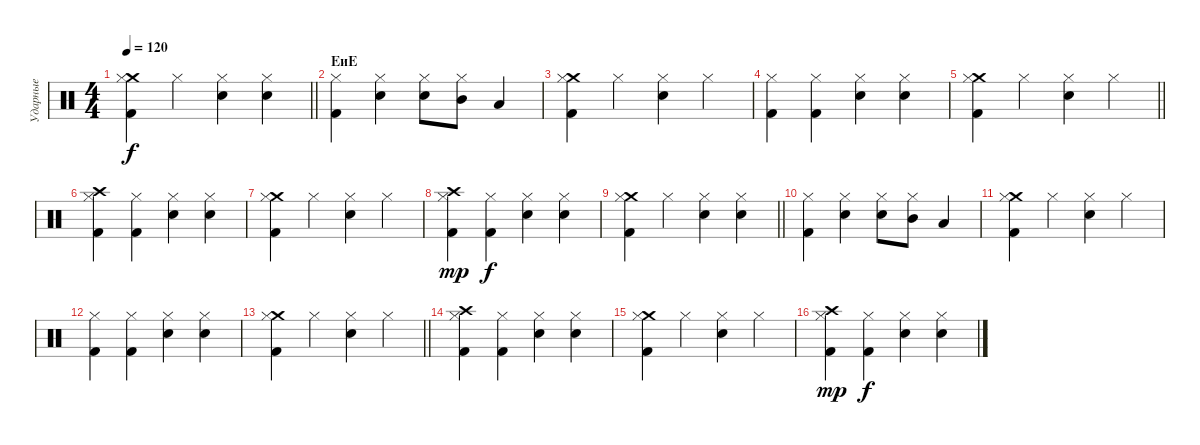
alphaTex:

\track ("Ударные" "Ударные") {instrument percussion}
\staff {score}
\articulation defaults
\ts (4 4)
\tempo 120
\clef neutral
\barLineRight lightlight
\ks c
("Crash medium (hit)" "Hi-Hat (closed)" "Kick (hit) 2").4{dy f} "Hi-Hat (closed)".4 ("Snare (hit) 2" "Hi-Hat (closed)").4 ("Snare (hit) 2" "Hi-Hat (closed)").4 |
\section ("" "ЕиЕ")
("Hi-Hat (closed)" "Kick (hit) 2").4 ("Snare (hit) 2" "Hi-Hat (closed)").4 ("Snare (hit) 2" "Hi-Hat (closed)").8 ("Mid Tom (hit)" "Hi-Hat (closed)").8 "Low Tom (hit)".4 |
("Crash medium (hit)" "Hi-Hat (closed)" "Kick (hit) 2").4 "Hi-Hat (closed)".4 ("Snare (hit) 2" "Hi-Hat (closed)").4 "Hi-Hat (closed)".4 |
("Hi-Hat (closed)" "Kick (hit) 2").4 ("Hi-Hat (closed)" "Kick (hit) 2").4 ("Snare (hit) 2" "Hi-Hat (closed)").4 ("Snare (hit) 2" "Hi-Hat (closed)").4 |
\barLineRight lightlight
("Crash medium (hit)" "Hi-Hat (closed)" "Kick (hit) 2").4 "Hi-Hat (closed)".4 ("Snare (hit) 2" "Hi-Hat (closed)").4 "Hi-Hat (closed)".4 |
("Crash high (hit)" "Hi-Hat (closed)" "Kick (hit) 2").4 ("Hi-Hat (closed)" "Kick (hit) 2").4 ("Snare (hit) 2" "Hi-Hat (closed)").4 ("Snare (hit) 2" "Hi-Hat (closed)").4 |
("Crash medium (hit)" "Hi-Hat (closed)" "Kick (hit) 2").4 "Hi-Hat (closed)".4 ("Snare (hit) 2" "Hi-Hat (closed)").4 "Hi-Hat (closed)".4 |
("Crash high (hit)" "Hi-Hat (closed)" "Kick (hit) 2").4{dy mp} ("Hi-Hat (closed)" "Kick (hit) 2").4{dy f} ("Snare (hit) 2" "Hi-Hat (closed)").4 ("Snare (hit) 2" "Hi-Hat (closed)").4 |
\barLineRight lightlight
("Crash medium (hit)" "Hi-Hat (closed)" "Kick (hit) 2").4 "Hi-Hat (closed)".4 ("Snare (hit) 2" "Hi-Hat (closed)").4 ("Snare (hit) 2" "Hi-Hat (closed)").4 |
("Hi-Hat (closed)" "Kick (hit) 2").4 ("Snare (hit) 2" "Hi-Hat (closed)").4 ("Snare (hit) 2" "Hi-Hat (closed)").8 ("Mid Tom (hit)" "Hi-Hat (closed)").8 "Low Tom (hit)".4 |
("Crash medium (hit)" "Hi-Hat (closed)" "Kick (hit) 2").4 "Hi-Hat (closed)".4 ("Snare (hit) 2" "Hi-Hat (closed)").4 "Hi-Hat (closed)".4 |
("Hi-Hat (closed)" "Kick (hit) 2").4 ("Hi-Hat (closed)" "Kick (hit) 2").4 ("Snare (hit) 2" "Hi-Hat (closed)").4 ("Snare (hit) 2" "Hi-Hat (closed)").4 |
\barLineRight lightlight
("Crash medium (hit)" "Hi-Hat (closed)" "Kick (hit) 2").4 "Hi-Hat (closed)".4 ("Snare (hit) 2" "Hi-Hat (closed)").4 "Hi-Hat (closed)".4 |
("Crash high (hit)" "Hi-Hat (closed)" "Kick (hit) 2").4 ("Hi-Hat (closed)" "Kick (hit) 2").4 ("Snare (hit) 2" "Hi-Hat (closed)").4 ("Snare (hit) 2" "Hi-Hat (closed)").4 |
("Crash medium (hit)" "Hi-Hat (closed)" "Kick (hit) 2").4 "Hi-Hat (closed)".4 ("Snare (hit) 2" "Hi-Hat (closed)").4 "Hi-Hat (closed)".4 |
("Crash high (hit)" "Hi-Hat (closed)" "Kick (hit) 2").4{dy mp} ("Hi-Hat (closed)" "Kick (hit) 2").4{dy f} ("Snare (hit) 2" "Hi-Hat (closed)").4 ("Snare (hit) 2" "Hi-Hat (closed)").4
